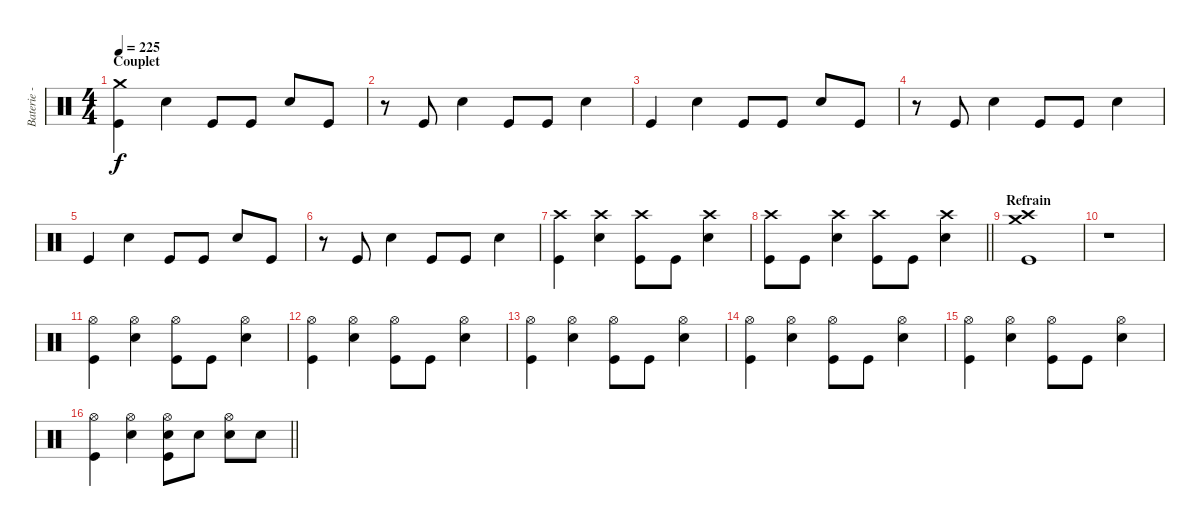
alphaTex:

\track ("Baterie - Alex" "Baterie - ") {instrument percussion}
\staff {score}
\articulation defaults
\ts (4 4)
\section ("" "Couplet")
\tempo 225
\clef neutral
\ks c
("Crash medium (hit)" "Kick (hit)").4{dy f} "Electric Snare (hit)".4 "Kick (hit)".8 "Kick (hit)".8 "Electric Snare (hit)".8 "Kick (hit)".8 |
r.8 "Kick (hit)".8 "Electric Snare (hit)".4 "Kick (hit)".8 "Kick (hit)".8 "Electric Snare (hit)".4 |
"Kick (hit)".4 "Electric Snare (hit)".4 "Kick (hit)".8 "Kick (hit)".8 "Electric Snare (hit)".8 "Kick (hit)".8 |
r.8 "Kick (hit)".8 "Electric Snare (hit)".4 "Kick (hit)".8 "Kick (hit)".8 "Electric Snare (hit)".4 |
"Kick (hit)".4 "Electric Snare (hit)".4 "Kick (hit)".8 "Kick (hit)".8 "Electric Snare (hit)".8 "Kick (hit)".8 |
r.8 "Kick (hit)".8 "Electric Snare (hit)".4 "Kick (hit)".8 "Kick (hit)".8 "Electric Snare (hit)".4 |
("Crash high (hit)" "Kick (hit)").4 ("Crash high (hit)" "Electric Snare (hit)").4 ("Crash high (hit)" "Kick (hit)").8 "Kick (hit)".8 ("Crash high (hit)" "Electric Snare (hit)").4 |
\barLineRight lightlight
("Crash high (hit)" "Kick (hit)").8 "Kick (hit)".8 ("Crash high (hit)" "Electric Snare (hit)").4 ("Crash high (hit)" "Kick (hit)").8 "Kick (hit)".8 ("Crash high (hit)" "Electric Snare (hit)").4 |
\section ("" "Refrain")
("Crash high (hit)" "Crash medium (hit)" "Kick (hit)").1 |
r.1 |
("Hi-Hat (open)" "Kick (hit)").4 ("Hi-Hat (open)" "Electric Snare (hit)").4 ("Hi-Hat (open)" "Kick (hit)").8 "Kick (hit)".8 ("Hi-Hat (open)" "Electric Snare (hit)").4 |
("Hi-Hat (open)" "Kick (hit)").4 ("Hi-Hat (open)" "Electric Snare (hit)").4 ("Hi-Hat (open)" "Kick (hit)").8 "Kick (hit)".8 ("Hi-Hat (open)" "Electric Snare (hit)").4 |
("Hi-Hat (open)" "Kick (hit)").4 ("Hi-Hat (open)" "Electric Snare (hit)").4 ("Hi-Hat (open)" "Kick (hit)").8 "Kick (hit)".8 ("Hi-Hat (open)" "Electric Snare (hit)").4 |
("Hi-Hat (open)" "Kick (hit)").4 ("Hi-Hat (open)" "Electric Snare (hit)").4 ("Hi-Hat (open)" "Kick (hit)").8 "Kick (hit)".8 ("Hi-Hat (open)" "Electric Snare (hit)").4 |
("Hi-Hat (open)" "Kick (hit)").4 ("Hi-Hat (open)" "Electric Snare (hit)").4 ("Hi-Hat (open)" "Kick (hit)").8 "Kick (hit)".8 ("Hi-Hat (open)" "Electric Snare (hit)").4 |
\barLineRight lightlight
("Hi-Hat (open)" "Kick (hit)").4 ("Hi-Hat (open)" "Electric Snare (hit)").4 ("Hi-Hat (open)" "Electric Snare (hit)" "Kick (hit)").8 "Electric Snare (hit)".8 ("Hi-Hat (open)" "Electric Snare (hit)").8 "Electric Snare (hit)".8
